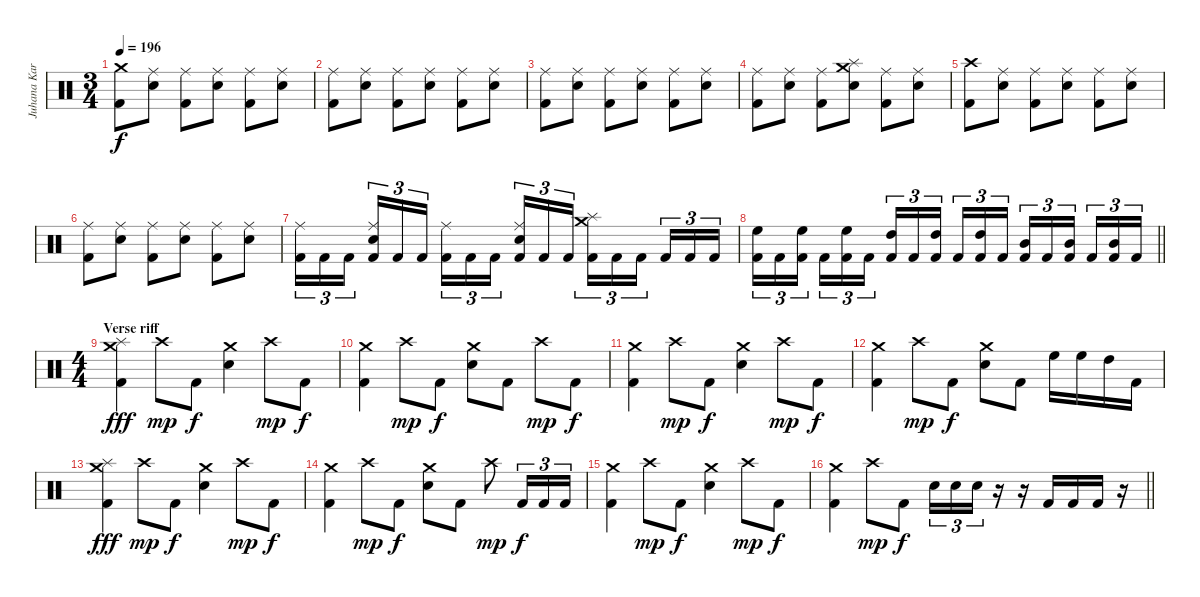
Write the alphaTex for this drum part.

\track ("Juhana Karlsson " "Juhana Kar") {instrument percussion}
\staff {score}
\articulation defaults
\ts (3 4)
\tempo 196
\clef neutral
\ks c
("Crash medium (hit)" "Kick (hit) 2").8{dy f} ("Ride (middle)" "Electric Snare (hit)").8 ("Ride (middle)" "Kick (hit) 2").8 ("Ride (middle)" "Electric Snare (hit)").8 ("Ride (middle)" "Kick (hit) 2").8 ("Ride (middle)" "Electric Snare (hit)").8 |
("Ride (middle)" "Kick (hit) 2").8 ("Ride (middle)" "Electric Snare (hit)").8 ("Ride (middle)" "Kick (hit) 2").8 ("Ride (middle)" "Electric Snare (hit)").8 ("Ride (middle)" "Kick (hit) 2").8 ("Ride (middle)" "Electric Snare (hit)").8 |
("Ride (middle)" "Kick (hit) 2").8 ("Ride (middle)" "Electric Snare (hit)").8 ("Ride (middle)" "Kick (hit) 2").8 ("Ride (middle)" "Electric Snare (hit)").8 ("Ride (middle)" "Kick (hit) 2").8 ("Ride (middle)" "Electric Snare (hit)").8 |
("Ride (middle)" "Kick (hit) 2").8 ("Ride (middle)" "Electric Snare (hit)").8 ("Ride (middle)" "Kick (hit) 2").8 ("Crash medium (hit)" "Splash (hit)" "Electric Snare (hit)").8 ("Ride (middle)" "Kick (hit) 2").8 ("Ride (middle)" "Electric Snare (hit)").8 |
("Crash high (hit)" "Kick (hit) 2").8 ("Ride (middle)" "Electric Snare (hit)").8 ("Ride (middle)" "Kick (hit) 2").8 ("Ride (middle)" "Electric Snare (hit)").8 ("Ride (middle)" "Kick (hit) 2").8 ("Ride (middle)" "Electric Snare (hit)").8 |
("Ride (middle)" "Kick (hit) 2").8 ("Ride (middle)" "Electric Snare (hit)").8 ("Ride (middle)" "Kick (hit) 2").8 ("Ride (middle)" "Electric Snare (hit)").8 ("Ride (middle)" "Kick (hit) 2").8 ("Ride (middle)" "Electric Snare (hit)").8 |
("Ride (middle)" "Kick (hit) 2").16{tu (3 2)} "Kick (hit) 2".16{tu (3 2)} "Kick (hit) 2".16{tu (3 2) beam splitsecondary} ("Ride (middle)" "Electric Snare (hit)" "Kick (hit) 2").16{tu (3 2)} "Kick (hit) 2".16{tu (3 2)} "Kick (hit) 2".16{tu (3 2)} ("Ride (middle)" "Kick (hit) 2").16{tu (3 2)} "Kick (hit) 2".16{tu (3 2)} "Kick (hit) 2".16{tu (3 2) beam splitsecondary} ("Ride (middle)" "Electric Snare (hit)" "Kick (hit) 2").16{tu (3 2)} "Kick (hit) 2".16{tu (3 2)} "Kick (hit) 2".16{tu (3 2)} ("Splash (hit)" "Crash medium (hit)" "Kick (hit) 2").16{tu (3 2)} "Kick (hit) 2".16{tu (3 2)} "Kick (hit) 2".16{tu (3 2) beam splitsecondary} "Kick (hit) 2".16{tu (3 2)} "Kick (hit) 2".16{tu (3 2)} "Kick (hit) 2".16{tu (3 2)} |
\barLineRight lightlight
("High Floor Tom (hit)" "Kick (hit) 2").16{tu (3 2)} "Kick (hit) 2".16{tu (3 2)} ("High Floor Tom (hit)" "Kick (hit) 2").16{tu (3 2) beam splitsecondary} "Kick (hit) 2".16{tu (3 2)} ("High Floor Tom (hit)" "Kick (hit) 2").16{tu (3 2)} "Kick (hit) 2".16{tu (3 2)} ("High Tom (hit)" "Kick (hit) 2").16{tu (3 2)} "Kick (hit) 2".16{tu (3 2)} ("High Tom (hit)" "Kick (hit) 2").16{tu (3 2) beam splitsecondary} "Kick (hit) 2".16{tu (3 2)} ("High Tom (hit)" "Kick (hit) 2").16{tu (3 2)} "Kick (hit) 2".16{tu (3 2)} ("Mid Tom (hit)" "Kick (hit) 2").16{tu (3 2)} "Kick (hit) 2".16{tu (3 2)} ("Mid Tom (hit)" "Kick (hit) 2").16{tu (3 2) beam splitsecondary} "Kick (hit) 2".16{tu (3 2)} ("Mid Tom (hit)" "Kick (hit) 2").16{tu (3 2)} "Kick (hit) 2".16{tu (3 2)} |
\ts (4 4)
\section ("" "Verse riff")
("Crash medium (hit)" "Splash (hit)" "Kick (hit) 2").4{dy fff} "Crash high (hit)".8{dy mp} "Kick (hit) 2".8{dy f} ("Crash medium (hit)" "Electric Snare (hit)").4 "Crash high (hit)".8{dy mp} "Kick (hit) 2".8{dy f} |
("Crash medium (hit)" "Kick (hit) 2").4 "Crash high (hit)".8{dy mp} "Kick (hit) 2".8{dy f} ("Crash medium (hit)" "Electric Snare (hit)").8 "Kick (hit) 2".8 "Crash high (hit)".8{dy mp} "Kick (hit) 2".8{dy f} |
("Crash medium (hit)" "Kick (hit) 2").4 "Crash high (hit)".8{dy mp} "Kick (hit) 2".8{dy f} ("Crash medium (hit)" "Electric Snare (hit)").4 "Crash high (hit)".8{dy mp} "Kick (hit) 2".8{dy f} |
("Crash medium (hit)" "Kick (hit) 2").4 "Crash high (hit)".8{dy mp} "Kick (hit) 2".8{dy f} ("Crash medium (hit)" "Electric Snare (hit)").8 "Kick (hit) 2".8 "High Floor Tom (hit)".16 "High Floor Tom (hit)".16 "High Tom (hit)".16 "Kick (hit) 2".16 |
("Crash medium (hit)" "Splash (hit)" "Kick (hit) 2").4{dy fff} "Crash high (hit)".8{dy mp} "Kick (hit) 2".8{dy f} ("Crash medium (hit)" "Electric Snare (hit)").4 "Crash high (hit)".8{dy mp} "Kick (hit) 2".8{dy f} |
("Crash medium (hit)" "Kick (hit) 2").4 "Crash high (hit)".8{dy mp} "Kick (hit) 2".8{dy f} ("Crash medium (hit)" "Electric Snare (hit)").8 "Kick (hit) 2".8 "Crash high (hit)".8{dy mp} "Kick (hit) 2".16{tu (3 2) dy f} "Kick (hit) 2".16{tu (3 2)} "Kick (hit) 2".16{tu (3 2)} |
("Crash medium (hit)" "Kick (hit) 2").4 "Crash high (hit)".8{dy mp} "Kick (hit) 2".8{dy f} ("Crash medium (hit)" "Electric Snare (hit)").4 "Crash high (hit)".8{dy mp} "Kick (hit) 2".8{dy f} |
\barLineRight lightlight
("Crash medium (hit)" "Kick (hit) 2").4 "Crash high (hit)".8{dy mp} "Kick (hit) 2".8{dy f} "Electric Snare (hit)".16{tu (3 2)} "Electric Snare (hit)".16{tu (3 2)} "Electric Snare (hit)".16{tu (3 2)} r.16 r.16 "Kick (hit) 2".16 "Kick (hit) 2".16 "Kick (hit) 2".16 r.16
